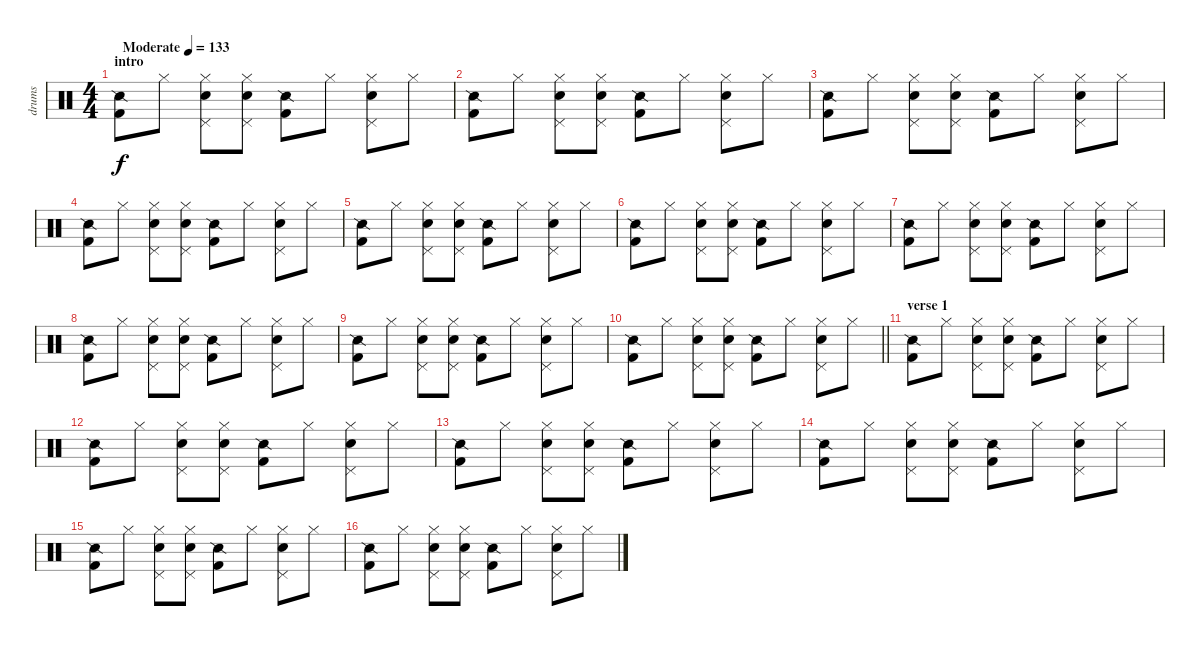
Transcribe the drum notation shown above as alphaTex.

\track ("drums" "drums") {instrument percussion}
\staff {score}
\articulation defaults
\ts (4 4)
\section ("" "intro")
\tempo (133 "Moderate")
\clef neutral
\ks c
("Snare (side stick) 2" "Kick (hit) 2").8{dy f} "Hi-Hat (closed)".8 ("Hi-Hat (closed)" "Electric Snare (hit)" "Pedal Hi-Hat (hit)").8 ("Hi-Hat (closed)" "Electric Snare (hit)" "Pedal Hi-Hat (hit)").8 ("Snare (side stick) 2" "Kick (hit) 2").8 "Hi-Hat (closed)".8 ("Hi-Hat (closed)" "Electric Snare (hit)" "Pedal Hi-Hat (hit)").8 "Hi-Hat (closed)".8 |
("Snare (side stick) 2" "Kick (hit) 2").8 "Hi-Hat (closed)".8 ("Hi-Hat (closed)" "Electric Snare (hit)" "Pedal Hi-Hat (hit)").8 ("Hi-Hat (closed)" "Electric Snare (hit)" "Pedal Hi-Hat (hit)").8 ("Snare (side stick) 2" "Kick (hit) 2").8 "Hi-Hat (closed)".8 ("Hi-Hat (closed)" "Electric Snare (hit)" "Pedal Hi-Hat (hit)").8 "Hi-Hat (closed)".8 |
("Snare (side stick) 2" "Kick (hit) 2").8 "Hi-Hat (closed)".8 ("Hi-Hat (closed)" "Electric Snare (hit)" "Pedal Hi-Hat (hit)").8 ("Hi-Hat (closed)" "Electric Snare (hit)" "Pedal Hi-Hat (hit)").8 ("Snare (side stick) 2" "Kick (hit) 2").8 "Hi-Hat (closed)".8 ("Hi-Hat (closed)" "Electric Snare (hit)" "Pedal Hi-Hat (hit)").8 "Hi-Hat (closed)".8 |
("Snare (side stick) 2" "Kick (hit) 2").8 "Hi-Hat (closed)".8 ("Hi-Hat (closed)" "Electric Snare (hit)" "Pedal Hi-Hat (hit)").8 ("Hi-Hat (closed)" "Electric Snare (hit)" "Pedal Hi-Hat (hit)").8 ("Snare (side stick) 2" "Kick (hit) 2").8 "Hi-Hat (closed)".8 ("Hi-Hat (closed)" "Electric Snare (hit)" "Pedal Hi-Hat (hit)").8 "Hi-Hat (closed)".8 |
("Snare (side stick) 2" "Kick (hit) 2").8 "Hi-Hat (closed)".8 ("Hi-Hat (closed)" "Electric Snare (hit)" "Pedal Hi-Hat (hit)").8 ("Hi-Hat (closed)" "Electric Snare (hit)" "Pedal Hi-Hat (hit)").8 ("Snare (side stick) 2" "Kick (hit) 2").8 "Hi-Hat (closed)".8 ("Hi-Hat (closed)" "Electric Snare (hit)" "Pedal Hi-Hat (hit)").8 "Hi-Hat (closed)".8 |
("Snare (side stick) 2" "Kick (hit) 2").8 "Hi-Hat (closed)".8 ("Hi-Hat (closed)" "Electric Snare (hit)" "Pedal Hi-Hat (hit)").8 ("Hi-Hat (closed)" "Electric Snare (hit)" "Pedal Hi-Hat (hit)").8 ("Snare (side stick) 2" "Kick (hit) 2").8 "Hi-Hat (closed)".8 ("Hi-Hat (closed)" "Electric Snare (hit)" "Pedal Hi-Hat (hit)").8 "Hi-Hat (closed)".8 |
("Snare (side stick) 2" "Kick (hit) 2").8 "Hi-Hat (closed)".8 ("Hi-Hat (closed)" "Electric Snare (hit)" "Pedal Hi-Hat (hit)").8 ("Hi-Hat (closed)" "Electric Snare (hit)" "Pedal Hi-Hat (hit)").8 ("Snare (side stick) 2" "Kick (hit) 2").8 "Hi-Hat (closed)".8 ("Hi-Hat (closed)" "Electric Snare (hit)" "Pedal Hi-Hat (hit)").8 "Hi-Hat (closed)".8 |
("Snare (side stick) 2" "Kick (hit) 2").8 "Hi-Hat (closed)".8 ("Hi-Hat (closed)" "Electric Snare (hit)" "Pedal Hi-Hat (hit)").8 ("Hi-Hat (closed)" "Electric Snare (hit)" "Pedal Hi-Hat (hit)").8 ("Snare (side stick) 2" "Kick (hit) 2").8 "Hi-Hat (closed)".8 ("Hi-Hat (closed)" "Electric Snare (hit)" "Pedal Hi-Hat (hit)").8 "Hi-Hat (closed)".8 |
("Snare (side stick) 2" "Kick (hit) 2").8 "Hi-Hat (closed)".8 ("Hi-Hat (closed)" "Electric Snare (hit)" "Pedal Hi-Hat (hit)").8 ("Hi-Hat (closed)" "Electric Snare (hit)" "Pedal Hi-Hat (hit)").8 ("Snare (side stick) 2" "Kick (hit) 2").8 "Hi-Hat (closed)".8 ("Hi-Hat (closed)" "Electric Snare (hit)" "Pedal Hi-Hat (hit)").8 "Hi-Hat (closed)".8 |
\barLineRight lightlight
("Snare (side stick) 2" "Kick (hit) 2").8 "Hi-Hat (closed)".8 ("Hi-Hat (closed)" "Electric Snare (hit)" "Pedal Hi-Hat (hit)").8 ("Hi-Hat (closed)" "Electric Snare (hit)" "Pedal Hi-Hat (hit)").8 ("Snare (side stick) 2" "Kick (hit) 2").8 "Hi-Hat (closed)".8 ("Hi-Hat (closed)" "Electric Snare (hit)" "Pedal Hi-Hat (hit)").8 "Hi-Hat (closed)".8 |
\section ("" "verse 1")
("Snare (side stick) 2" "Kick (hit) 2").8 "Hi-Hat (closed)".8 ("Hi-Hat (closed)" "Electric Snare (hit)" "Pedal Hi-Hat (hit)").8 ("Hi-Hat (closed)" "Electric Snare (hit)" "Pedal Hi-Hat (hit)").8 ("Snare (side stick) 2" "Kick (hit) 2").8 "Hi-Hat (closed)".8 ("Hi-Hat (closed)" "Electric Snare (hit)" "Pedal Hi-Hat (hit)").8 "Hi-Hat (closed)".8 |
("Snare (side stick) 2" "Kick (hit) 2").8 "Hi-Hat (closed)".8 ("Hi-Hat (closed)" "Electric Snare (hit)" "Pedal Hi-Hat (hit)").8 ("Hi-Hat (closed)" "Electric Snare (hit)" "Pedal Hi-Hat (hit)").8 ("Snare (side stick) 2" "Kick (hit) 2").8 "Hi-Hat (closed)".8 ("Hi-Hat (closed)" "Electric Snare (hit)" "Pedal Hi-Hat (hit)").8 "Hi-Hat (closed)".8 |
("Snare (side stick) 2" "Kick (hit) 2").8 "Hi-Hat (closed)".8 ("Hi-Hat (closed)" "Electric Snare (hit)" "Pedal Hi-Hat (hit)").8 ("Hi-Hat (closed)" "Electric Snare (hit)" "Pedal Hi-Hat (hit)").8 ("Snare (side stick) 2" "Kick (hit) 2").8 "Hi-Hat (closed)".8 ("Hi-Hat (closed)" "Electric Snare (hit)" "Pedal Hi-Hat (hit)").8 "Hi-Hat (closed)".8 |
("Snare (side stick) 2" "Kick (hit) 2").8 "Hi-Hat (closed)".8 ("Hi-Hat (closed)" "Electric Snare (hit)" "Pedal Hi-Hat (hit)").8 ("Hi-Hat (closed)" "Electric Snare (hit)" "Pedal Hi-Hat (hit)").8 ("Snare (side stick) 2" "Kick (hit) 2").8 "Hi-Hat (closed)".8 ("Hi-Hat (closed)" "Electric Snare (hit)" "Pedal Hi-Hat (hit)").8 "Hi-Hat (closed)".8 |
("Snare (side stick) 2" "Kick (hit) 2").8 "Hi-Hat (closed)".8 ("Hi-Hat (closed)" "Electric Snare (hit)" "Pedal Hi-Hat (hit)").8 ("Hi-Hat (closed)" "Electric Snare (hit)" "Pedal Hi-Hat (hit)").8 ("Snare (side stick) 2" "Kick (hit) 2").8 "Hi-Hat (closed)".8 ("Hi-Hat (closed)" "Electric Snare (hit)" "Pedal Hi-Hat (hit)").8 "Hi-Hat (closed)".8 |
("Snare (side stick) 2" "Kick (hit) 2").8 "Hi-Hat (closed)".8 ("Hi-Hat (closed)" "Electric Snare (hit)" "Pedal Hi-Hat (hit)").8 ("Hi-Hat (closed)" "Electric Snare (hit)" "Pedal Hi-Hat (hit)").8 ("Snare (side stick) 2" "Kick (hit) 2").8 "Hi-Hat (closed)".8 ("Hi-Hat (closed)" "Electric Snare (hit)" "Pedal Hi-Hat (hit)").8 "Hi-Hat (closed)".8
